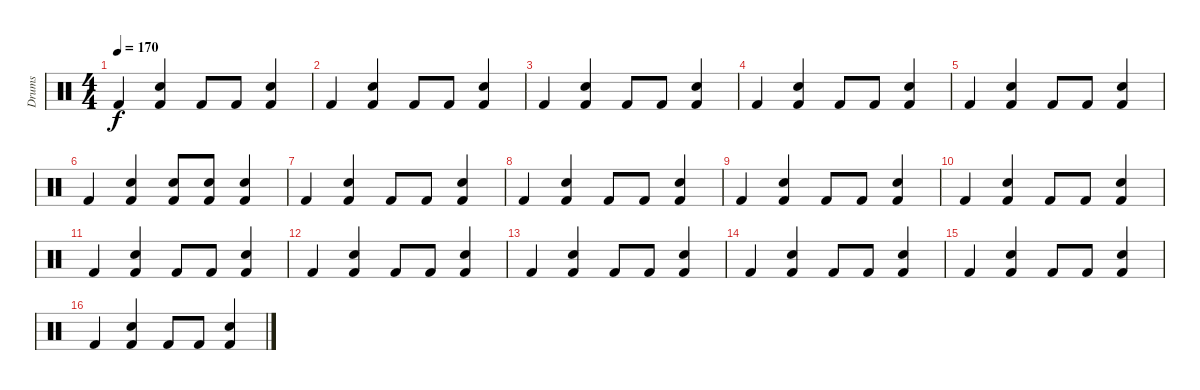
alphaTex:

\track ("Drums" "Drums") {instrument percussion}
\staff {score}
\articulation defaults
\ts (4 4)
\tempo 170
\clef neutral
\ks c "Kick (hit) 2".4{dy f}
("Kick (hit) 2" "Snare (hit) 2").4 "Kick (hit) 2".8 "Kick (hit) 2".8 ("Kick (hit) 2" "Snare (hit) 2").4 |
"Kick (hit) 2".4 ("Kick (hit) 2" "Snare (hit) 2").4 "Kick (hit) 2".8 "Kick (hit) 2".8 ("Kick (hit) 2" "Snare (hit) 2").4 |
"Kick (hit) 2".4 ("Kick (hit) 2" "Snare (hit) 2").4 "Kick (hit) 2".8 "Kick (hit) 2".8 ("Kick (hit) 2" "Snare (hit) 2").4 |
"Kick (hit) 2".4 ("Kick (hit) 2" "Snare (hit) 2").4 "Kick (hit) 2".8 "Kick (hit) 2".8 ("Kick (hit) 2" "Snare (hit) 2").4 |
"Kick (hit) 2".4 ("Kick (hit) 2" "Snare (hit) 2").4 "Kick (hit) 2".8 "Kick (hit) 2".8 ("Kick (hit) 2" "Snare (hit) 2").4 |
"Kick (hit) 2".4 ("Kick (hit) 2" "Snare (hit) 2").4 ("Kick (hit) 2" "Snare (hit) 2").8 ("Kick (hit) 2" "Snare (hit) 2").8 ("Kick (hit) 2" "Snare (hit) 2").4 |
"Kick (hit) 2".4 ("Kick (hit) 2" "Snare (hit) 2").4 "Kick (hit) 2".8 "Kick (hit) 2".8 ("Kick (hit) 2" "Snare (hit) 2").4 |
"Kick (hit) 2".4 ("Kick (hit) 2" "Snare (hit) 2").4 "Kick (hit) 2".8 "Kick (hit) 2".8 ("Kick (hit) 2" "Snare (hit) 2").4 |
"Kick (hit) 2".4 ("Kick (hit) 2" "Snare (hit) 2").4 "Kick (hit) 2".8 "Kick (hit) 2".8 ("Kick (hit) 2" "Snare (hit) 2").4 |
"Kick (hit) 2".4 ("Kick (hit) 2" "Snare (hit) 2").4 "Kick (hit) 2".8 "Kick (hit) 2".8 ("Kick (hit) 2" "Snare (hit) 2").4 |
"Kick (hit) 2".4 ("Kick (hit) 2" "Snare (hit) 2").4 "Kick (hit) 2".8 "Kick (hit) 2".8 ("Kick (hit) 2" "Snare (hit) 2").4 |
"Kick (hit) 2".4 ("Kick (hit) 2" "Snare (hit) 2").4 "Kick (hit) 2".8 "Kick (hit) 2".8 ("Kick (hit) 2" "Snare (hit) 2").4 |
"Kick (hit) 2".4 ("Kick (hit) 2" "Snare (hit) 2").4 "Kick (hit) 2".8 "Kick (hit) 2".8 ("Kick (hit) 2" "Snare (hit) 2").4 |
"Kick (hit) 2".4 ("Kick (hit) 2" "Snare (hit) 2").4 "Kick (hit) 2".8 "Kick (hit) 2".8 ("Kick (hit) 2" "Snare (hit) 2").4 |
"Kick (hit) 2".4 ("Kick (hit) 2" "Snare (hit) 2").4 "Kick (hit) 2".8 "Kick (hit) 2".8 ("Kick (hit) 2" "Snare (hit) 2").4 |
"Kick (hit) 2".4 ("Kick (hit) 2" "Snare (hit) 2").4 "Kick (hit) 2".8 "Kick (hit) 2".8 ("Kick (hit) 2" "Snare (hit) 2").4
